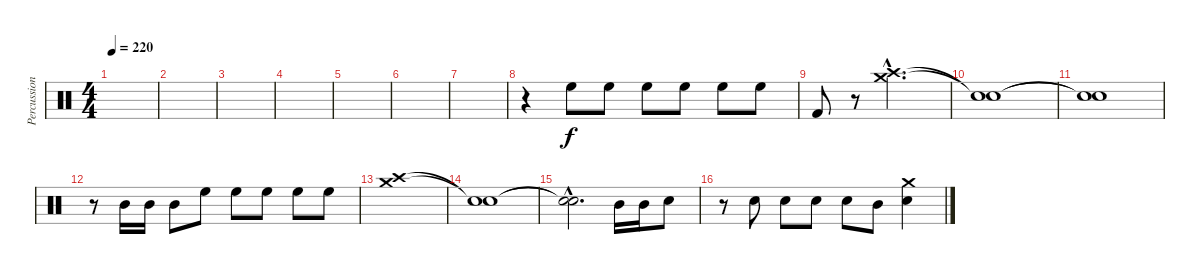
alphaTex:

\track ("Percussion" "Percussion") {instrument percussion}
\staff {score}
\articulation defaults
\ts (4 4)
\tempo 220
\clef neutral
\ks c
|
|
|
|
|
|
|
r.4 "High Floor Tom (hit)".8 "High Floor Tom (hit)".8 "High Floor Tom (hit)".8 "High Floor Tom (hit)".8 "High Floor Tom (hit)".8 "High Floor Tom (hit)".8 |
"Kick (hit) 2".8 r.8 ("Crash high (hit)"{hac} "Crash medium (hit)"{hac}).2{d} |
("Snare (hit)"{t} "Snare (hit)"{t}).1 |
("Snare (hit)"{t} "Snare (hit)"{t}).1 |
r.8 "Mid Tom (hit)".16 "Mid Tom (hit)".16 "Mid Tom (hit)".8 "High Floor Tom (hit)".8 "High Floor Tom (hit)".8 "High Floor Tom (hit)".8 "High Floor Tom (hit)".8 "High Floor Tom (hit)".8 |
("Crash medium (hit)" "Crash high (hit)").1 |
("Snare (hit)"{t} "Snare (hit)"{t}).1 |
("Snare (hit)"{hac t} "Snare (hit)"{hac t}).2{d} "Mid Tom (hit)".16 "Mid Tom (hit)".16 "Snare (hit) 2".8 |
r.8 "Snare (hit) 2".8 "Snare (hit) 2".8 "Snare (hit) 2".8 "Snare (hit) 2".8 "Mid Tom (hit)".8 ("Crash medium (hit)" "Snare (hit) 2").4
